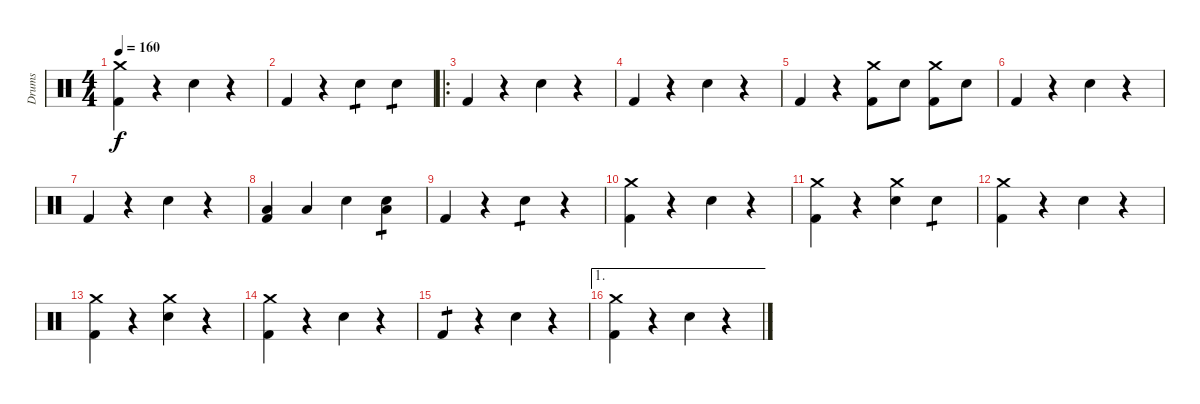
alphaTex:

\track ("Drums" "Drums") {instrument percussion}
\staff {score}
\articulation defaults
\ts (4 4)
\tempo 160
\clef neutral
\ks c
("Kick (hit) 2" "Crash medium (hit)").4{dy f} r.4 "Snare (hit) 2".4 r.4 |
"Kick (hit) 2".4 r.4 "Snare (hit) 2".4{tp 1} "Snare (hit) 2".4{tp 1} |
\ro "Kick (hit) 2".4
r.4 "Snare (hit) 2".4 r.4 |
"Kick (hit) 2".4 r.4 "Snare (hit) 2".4 r.4 |
"Kick (hit) 2".4 r.4 ("Kick (hit) 2" "Crash medium (hit)").8 "Snare (hit) 2".8 ("Kick (hit) 2" "Crash medium (hit)").8 "Snare (hit) 2".8 |
"Kick (hit) 2".4 r.4 "Snare (hit) 2".4 r.4 |
"Kick (hit) 2".4 r.4 "Snare (hit) 2".4 r.4 |
("Kick (hit) 2" "Low Floor Tom (hit)").4 "Low Floor Tom (hit)".4 "Snare (hit) 2".4 ("Snare (hit) 2" "Low Floor Tom (hit)").4{tp 1} |
"Kick (hit) 2".4 r.4 "Snare (hit) 2".4{tp 1} r.4 |
("Kick (hit) 2" "Crash medium (hit)").4 r.4 "Snare (hit) 2".4 r.4 |
("Kick (hit) 2" "Crash medium (hit)").4 r.4 ("Snare (hit) 2" "Crash medium (hit)").4 "Snare (hit) 2".4{tp 1} |
("Kick (hit) 2" "Crash medium (hit)").4 r.4 "Snare (hit) 2".4 r.4 |
("Kick (hit) 2" "Crash medium (hit)").4 r.4 ("Snare (hit) 2" "Crash medium (hit)").4 r.4 |
("Kick (hit) 2" "Crash medium (hit)").4 r.4 "Snare (hit) 2".4 r.4 |
"Kick (hit) 2".4{tp 1} r.4 "Snare (hit) 2".4 r.4 |
\ae 1
("Kick (hit) 2" "Crash medium (hit)").4 r.4 "Snare (hit) 2".4 r.4
